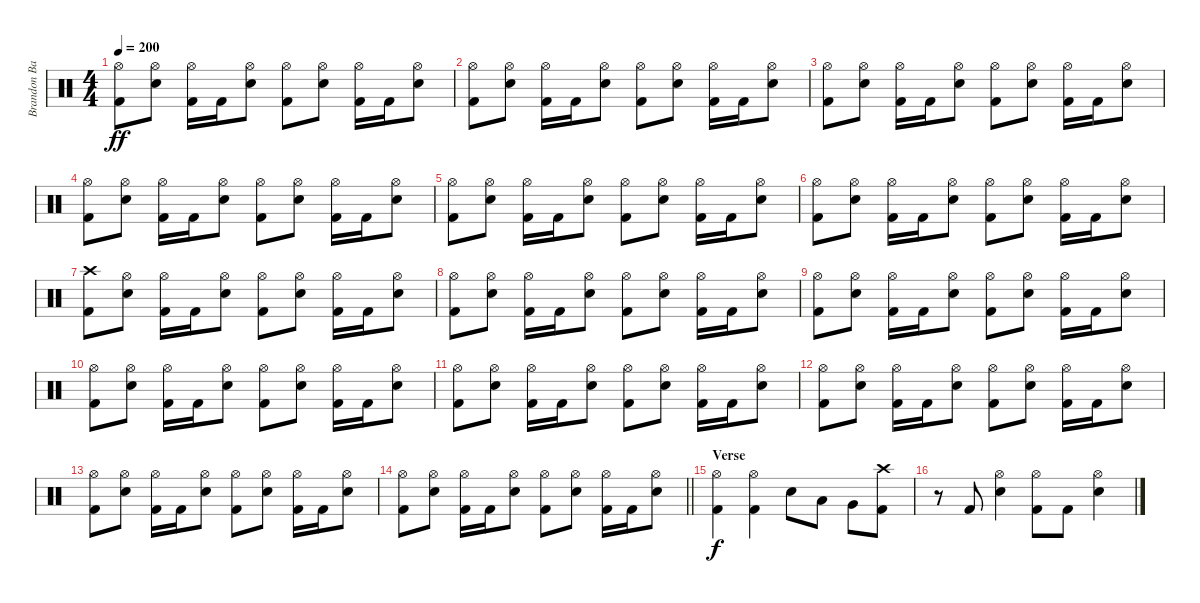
\track ("Brandon Barnes - Drums" "Brandon Ba") {instrument percussion}
\staff {score}
\articulation defaults
\ts (4 4)
\tempo 200
\clef neutral
\ks c
("Kick (hit) 2" "Hi-Hat (open)").8{dy ff} ("Snare (hit) 2" "Hi-Hat (open)").8 ("Kick (hit) 2" "Hi-Hat (open)").16 "Kick (hit) 2".16 ("Snare (hit) 2" "Hi-Hat (open)").8 ("Kick (hit) 2" "Hi-Hat (open)").8 ("Snare (hit) 2" "Hi-Hat (open)").8 ("Kick (hit) 2" "Hi-Hat (open)").16 "Kick (hit) 2".16 ("Snare (hit) 2" "Hi-Hat (open)").8 |
("Kick (hit) 2" "Hi-Hat (open)").8 ("Snare (hit) 2" "Hi-Hat (open)").8 ("Kick (hit) 2" "Hi-Hat (open)").16 "Kick (hit) 2".16 ("Snare (hit) 2" "Hi-Hat (open)").8 ("Kick (hit) 2" "Hi-Hat (open)").8 ("Snare (hit) 2" "Hi-Hat (open)").8 ("Kick (hit) 2" "Hi-Hat (open)").16 "Kick (hit) 2".16 ("Snare (hit) 2" "Hi-Hat (open)").8 |
("Kick (hit) 2" "Hi-Hat (open)").8 ("Snare (hit) 2" "Hi-Hat (open)").8 ("Kick (hit) 2" "Hi-Hat (open)").16 "Kick (hit) 2".16 ("Snare (hit) 2" "Hi-Hat (open)").8 ("Kick (hit) 2" "Hi-Hat (open)").8 ("Snare (hit) 2" "Hi-Hat (open)").8 ("Kick (hit) 2" "Hi-Hat (open)").16 "Kick (hit) 2".16 ("Snare (hit) 2" "Hi-Hat (open)").8 |
("Kick (hit) 2" "Hi-Hat (open)").8 ("Snare (hit) 2" "Hi-Hat (open)").8 ("Kick (hit) 2" "Hi-Hat (open)").16 "Kick (hit) 2".16 ("Snare (hit) 2" "Hi-Hat (open)").8 ("Kick (hit) 2" "Hi-Hat (open)").8 ("Snare (hit) 2" "Hi-Hat (open)").8 ("Kick (hit) 2" "Hi-Hat (open)").16 "Kick (hit) 2".16 ("Snare (hit) 2" "Hi-Hat (open)").8 |
("Kick (hit) 2" "Hi-Hat (open)").8 ("Snare (hit) 2" "Hi-Hat (open)").8 ("Kick (hit) 2" "Hi-Hat (open)").16 "Kick (hit) 2".16 ("Snare (hit) 2" "Hi-Hat (open)").8 ("Kick (hit) 2" "Hi-Hat (open)").8 ("Snare (hit) 2" "Hi-Hat (open)").8 ("Kick (hit) 2" "Hi-Hat (open)").16 "Kick (hit) 2".16 ("Snare (hit) 2" "Hi-Hat (open)").8 |
("Kick (hit) 2" "Hi-Hat (open)").8 ("Snare (hit) 2" "Hi-Hat (open)").8 ("Kick (hit) 2" "Hi-Hat (open)").16 "Kick (hit) 2".16 ("Snare (hit) 2" "Hi-Hat (open)").8 ("Kick (hit) 2" "Hi-Hat (open)").8 ("Snare (hit) 2" "Hi-Hat (open)").8 ("Kick (hit) 2" "Hi-Hat (open)").16 "Kick (hit) 2".16 ("Snare (hit) 2" "Hi-Hat (open)").8 |
("Kick (hit) 2" "Crash high (hit)").8 ("Snare (hit) 2" "Hi-Hat (open)").8 ("Kick (hit) 2" "Hi-Hat (open)").16 "Kick (hit) 2".16 ("Snare (hit) 2" "Hi-Hat (open)").8 ("Kick (hit) 2" "Hi-Hat (open)").8 ("Snare (hit) 2" "Hi-Hat (open)").8 ("Kick (hit) 2" "Hi-Hat (open)").16 "Kick (hit) 2".16 ("Snare (hit) 2" "Hi-Hat (open)").8 |
("Kick (hit) 2" "Hi-Hat (open)").8 ("Snare (hit) 2" "Hi-Hat (open)").8 ("Kick (hit) 2" "Hi-Hat (open)").16 "Kick (hit) 2".16 ("Snare (hit) 2" "Hi-Hat (open)").8 ("Kick (hit) 2" "Hi-Hat (open)").8 ("Snare (hit) 2" "Hi-Hat (open)").8 ("Kick (hit) 2" "Hi-Hat (open)").16 "Kick (hit) 2".16 ("Snare (hit) 2" "Hi-Hat (open)").8 |
("Kick (hit) 2" "Hi-Hat (open)").8 ("Snare (hit) 2" "Hi-Hat (open)").8 ("Kick (hit) 2" "Hi-Hat (open)").16 "Kick (hit) 2".16 ("Snare (hit) 2" "Hi-Hat (open)").8 ("Kick (hit) 2" "Hi-Hat (open)").8 ("Snare (hit) 2" "Hi-Hat (open)").8 ("Kick (hit) 2" "Hi-Hat (open)").16 "Kick (hit) 2".16 ("Snare (hit) 2" "Hi-Hat (open)").8 |
("Kick (hit) 2" "Hi-Hat (open)").8 ("Snare (hit) 2" "Hi-Hat (open)").8 ("Kick (hit) 2" "Hi-Hat (open)").16 "Kick (hit) 2".16 ("Snare (hit) 2" "Hi-Hat (open)").8 ("Kick (hit) 2" "Hi-Hat (open)").8 ("Snare (hit) 2" "Hi-Hat (open)").8 ("Kick (hit) 2" "Hi-Hat (open)").16 "Kick (hit) 2".16 ("Snare (hit) 2" "Hi-Hat (open)").8 |
("Kick (hit) 2" "Hi-Hat (open)").8 ("Snare (hit) 2" "Hi-Hat (open)").8 ("Kick (hit) 2" "Hi-Hat (open)").16 "Kick (hit) 2".16 ("Snare (hit) 2" "Hi-Hat (open)").8 ("Kick (hit) 2" "Hi-Hat (open)").8 ("Snare (hit) 2" "Hi-Hat (open)").8 ("Kick (hit) 2" "Hi-Hat (open)").16 "Kick (hit) 2".16 ("Snare (hit) 2" "Hi-Hat (open)").8 |
("Kick (hit) 2" "Hi-Hat (open)").8 ("Snare (hit) 2" "Hi-Hat (open)").8 ("Kick (hit) 2" "Hi-Hat (open)").16 "Kick (hit) 2".16 ("Snare (hit) 2" "Hi-Hat (open)").8 ("Kick (hit) 2" "Hi-Hat (open)").8 ("Snare (hit) 2" "Hi-Hat (open)").8 ("Kick (hit) 2" "Hi-Hat (open)").16 "Kick (hit) 2".16 ("Snare (hit) 2" "Hi-Hat (open)").8 |
("Kick (hit) 2" "Hi-Hat (open)").8 ("Snare (hit) 2" "Hi-Hat (open)").8 ("Kick (hit) 2" "Hi-Hat (open)").16 "Kick (hit) 2".16 ("Snare (hit) 2" "Hi-Hat (open)").8 ("Kick (hit) 2" "Hi-Hat (open)").8 ("Snare (hit) 2" "Hi-Hat (open)").8 ("Kick (hit) 2" "Hi-Hat (open)").16 "Kick (hit) 2".16 ("Snare (hit) 2" "Hi-Hat (open)").8 |
\barLineRight lightlight
("Kick (hit) 2" "Hi-Hat (open)").8 ("Snare (hit) 2" "Hi-Hat (open)").8 ("Kick (hit) 2" "Hi-Hat (open)").16 "Kick (hit) 2".16 ("Snare (hit) 2" "Hi-Hat (open)").8 ("Kick (hit) 2" "Hi-Hat (open)").8 ("Snare (hit) 2" "Hi-Hat (open)").8 ("Kick (hit) 2" "Hi-Hat (open)").16 "Kick (hit) 2".16 ("Snare (hit) 2" "Hi-Hat (open)").8 |
\section ("" "Verse")
("Hi-Hat (open)" "Kick (hit) 2").4{dy f} ("Hi-Hat (open)" "Kick (hit) 2").4 "Electric Snare (hit)".8 "Low Tom (hit)".8 "Very Low Tom (hit)".8 ("Crash high (hit)" "Kick (hit) 2").8 |
r.8 "Kick (hit) 2".8 ("Hi-Hat (open)" "Electric Snare (hit)").4 ("Hi-Hat (open)" "Kick (hit) 2").8 "Kick (hit) 2".8 ("Hi-Hat (open)" "Electric Snare (hit)").4
